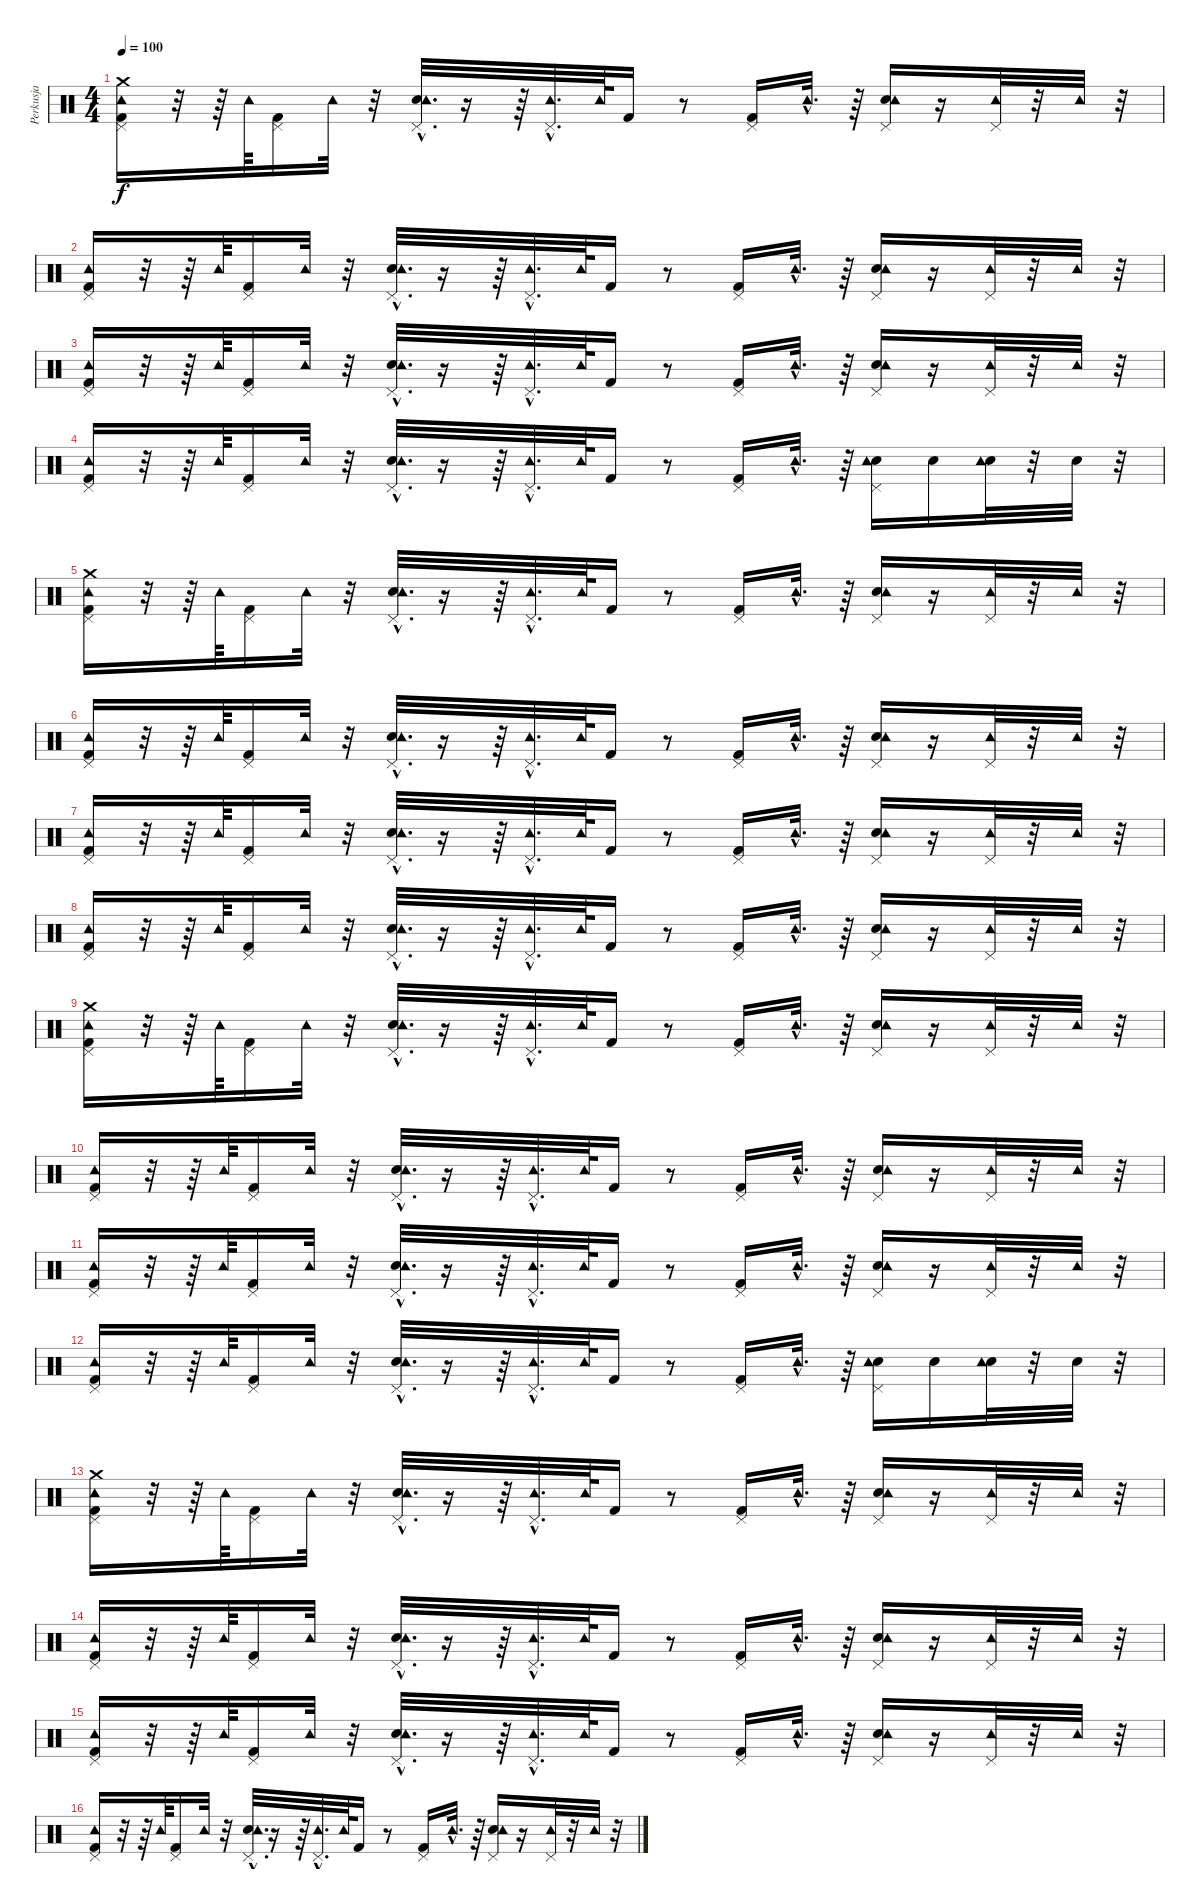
\track ("Perkusja" "Perkusja") {instrument percussion}
\staff {score}
\articulation defaults
\ts (4 4)
\tempo 100
\clef neutral
\ks c
("Tambourine (hit)" "Pedal Hi-Hat (hit)" "Kick (hit) 2" "Crash medium (hit)").16{dy f} r.32 r.64 "Tambourine (hit)".64 ("Kick (hit) 2" "Pedal Hi-Hat (hit)").16 "Tambourine (hit)".32 r.32 ("Electric Snare (hit)"{hac} "Pedal Hi-Hat (hit)"{hac} "Tambourine (hit)"{hac}).32{d} r.16 r.64 ("Pedal Hi-Hat (hit)"{hac} "Tambourine (hit)"{hac}).32{d} "Tambourine (hit)".64 "Kick (hit) 2".16 r.8 ("Kick (hit) 2" "Pedal Hi-Hat (hit)").16 "Tambourine (hit)"{hac}.32{d} r.64 ("Electric Snare (hit)" "Pedal Hi-Hat (hit)" "Tambourine (hit)").16 r.16 ("Pedal Hi-Hat (hit)" "Tambourine (hit)").32 r.32 "Tambourine (hit)".32 r.32 |
("Tambourine (hit)" "Pedal Hi-Hat (hit)" "Kick (hit) 2").16 r.32 r.64 "Tambourine (hit)".64 ("Kick (hit) 2" "Pedal Hi-Hat (hit)").16 "Tambourine (hit)".32 r.32 ("Electric Snare (hit)"{hac} "Pedal Hi-Hat (hit)"{hac} "Tambourine (hit)"{hac}).32{d} r.16 r.64 ("Pedal Hi-Hat (hit)"{hac} "Tambourine (hit)"{hac}).32{d} "Tambourine (hit)".64 "Kick (hit) 2".16 r.8 ("Kick (hit) 2" "Pedal Hi-Hat (hit)").16 "Tambourine (hit)"{hac}.32{d} r.64 ("Electric Snare (hit)" "Pedal Hi-Hat (hit)" "Tambourine (hit)").16 r.16 ("Pedal Hi-Hat (hit)" "Tambourine (hit)").32 r.32 "Tambourine (hit)".32 r.32 |
("Tambourine (hit)" "Pedal Hi-Hat (hit)" "Kick (hit) 2").16 r.32 r.64 "Tambourine (hit)".64 ("Kick (hit) 2" "Pedal Hi-Hat (hit)").16 "Tambourine (hit)".32 r.32 ("Electric Snare (hit)"{hac} "Pedal Hi-Hat (hit)"{hac} "Tambourine (hit)"{hac}).32{d} r.16 r.64 ("Pedal Hi-Hat (hit)"{hac} "Tambourine (hit)"{hac}).32{d} "Tambourine (hit)".64 "Kick (hit) 2".16 r.8 ("Kick (hit) 2" "Pedal Hi-Hat (hit)").16 "Tambourine (hit)"{hac}.32{d} r.64 ("Electric Snare (hit)" "Pedal Hi-Hat (hit)" "Tambourine (hit)").16 r.16 ("Pedal Hi-Hat (hit)" "Tambourine (hit)").32 r.32 "Tambourine (hit)".32 r.32 |
("Tambourine (hit)" "Pedal Hi-Hat (hit)" "Kick (hit) 2").16 r.32 r.64 "Tambourine (hit)".64 ("Kick (hit) 2" "Pedal Hi-Hat (hit)").16 "Tambourine (hit)".32 r.32 ("Electric Snare (hit)"{hac} "Pedal Hi-Hat (hit)"{hac} "Tambourine (hit)"{hac}).32{d} r.16 r.64 ("Pedal Hi-Hat (hit)"{hac} "Tambourine (hit)"{hac}).32{d} "Tambourine (hit)".64 "Kick (hit) 2".16 r.8 ("Kick (hit) 2" "Pedal Hi-Hat (hit)").16 "Tambourine (hit)"{hac}.32{d} r.64 ("Electric Snare (hit)" "Pedal Hi-Hat (hit)" "Tambourine (hit)").16 "Electric Snare (hit)".16 ("Electric Snare (hit)" "Tambourine (hit)").32 r.32 "Electric Snare (hit)".32 r.32 |
("Tambourine (hit)" "Pedal Hi-Hat (hit)" "Kick (hit) 2" "Crash medium (hit)").16 r.32 r.64 "Tambourine (hit)".64 ("Kick (hit) 2" "Pedal Hi-Hat (hit)").16 "Tambourine (hit)".32 r.32 ("Electric Snare (hit)"{hac} "Pedal Hi-Hat (hit)"{hac} "Tambourine (hit)"{hac}).32{d} r.16 r.64 ("Pedal Hi-Hat (hit)"{hac} "Tambourine (hit)"{hac}).32{d} "Tambourine (hit)".64 "Kick (hit) 2".16 r.8 ("Kick (hit) 2" "Pedal Hi-Hat (hit)").16 "Tambourine (hit)"{hac}.32{d} r.64 ("Electric Snare (hit)" "Pedal Hi-Hat (hit)" "Tambourine (hit)").16 r.16 ("Pedal Hi-Hat (hit)" "Tambourine (hit)").32 r.32 "Tambourine (hit)".32 r.32 |
("Tambourine (hit)" "Pedal Hi-Hat (hit)" "Kick (hit) 2").16 r.32 r.64 "Tambourine (hit)".64 ("Kick (hit) 2" "Pedal Hi-Hat (hit)").16 "Tambourine (hit)".32 r.32 ("Electric Snare (hit)"{hac} "Pedal Hi-Hat (hit)"{hac} "Tambourine (hit)"{hac}).32{d} r.16 r.64 ("Pedal Hi-Hat (hit)"{hac} "Tambourine (hit)"{hac}).32{d} "Tambourine (hit)".64 "Kick (hit) 2".16 r.8 ("Kick (hit) 2" "Pedal Hi-Hat (hit)").16 "Tambourine (hit)"{hac}.32{d} r.64 ("Electric Snare (hit)" "Pedal Hi-Hat (hit)" "Tambourine (hit)").16 r.16 ("Pedal Hi-Hat (hit)" "Tambourine (hit)").32 r.32 "Tambourine (hit)".32 r.32 |
("Tambourine (hit)" "Pedal Hi-Hat (hit)" "Kick (hit) 2").16 r.32 r.64 "Tambourine (hit)".64 ("Kick (hit) 2" "Pedal Hi-Hat (hit)").16 "Tambourine (hit)".32 r.32 ("Electric Snare (hit)"{hac} "Pedal Hi-Hat (hit)"{hac} "Tambourine (hit)"{hac}).32{d} r.16 r.64 ("Pedal Hi-Hat (hit)"{hac} "Tambourine (hit)"{hac}).32{d} "Tambourine (hit)".64 "Kick (hit) 2".16 r.8 ("Kick (hit) 2" "Pedal Hi-Hat (hit)").16 "Tambourine (hit)"{hac}.32{d} r.64 ("Electric Snare (hit)" "Pedal Hi-Hat (hit)" "Tambourine (hit)").16 r.16 ("Pedal Hi-Hat (hit)" "Tambourine (hit)").32 r.32 "Tambourine (hit)".32 r.32 |
("Tambourine (hit)" "Pedal Hi-Hat (hit)" "Kick (hit) 2").16 r.32 r.64 "Tambourine (hit)".64 ("Kick (hit) 2" "Pedal Hi-Hat (hit)").16 "Tambourine (hit)".32 r.32 ("Electric Snare (hit)"{hac} "Pedal Hi-Hat (hit)"{hac} "Tambourine (hit)"{hac}).32{d} r.16 r.64 ("Pedal Hi-Hat (hit)"{hac} "Tambourine (hit)"{hac}).32{d} "Tambourine (hit)".64 "Kick (hit) 2".16 r.8 ("Kick (hit) 2" "Pedal Hi-Hat (hit)").16 "Tambourine (hit)"{hac}.32{d} r.64 ("Electric Snare (hit)" "Pedal Hi-Hat (hit)" "Tambourine (hit)").16 r.16 ("Pedal Hi-Hat (hit)" "Tambourine (hit)").32 r.32 "Tambourine (hit)".32 r.32 |
("Tambourine (hit)" "Pedal Hi-Hat (hit)" "Kick (hit) 2" "Crash medium (hit)").16 r.32 r.64 "Tambourine (hit)".64 ("Kick (hit) 2" "Pedal Hi-Hat (hit)").16 "Tambourine (hit)".32 r.32 ("Electric Snare (hit)"{hac} "Pedal Hi-Hat (hit)"{hac} "Tambourine (hit)"{hac}).32{d} r.16 r.64 ("Pedal Hi-Hat (hit)"{hac} "Tambourine (hit)"{hac}).32{d} "Tambourine (hit)".64 "Kick (hit) 2".16 r.8 ("Kick (hit) 2" "Pedal Hi-Hat (hit)").16 "Tambourine (hit)"{hac}.32{d} r.64 ("Electric Snare (hit)" "Pedal Hi-Hat (hit)" "Tambourine (hit)").16 r.16 ("Pedal Hi-Hat (hit)" "Tambourine (hit)").32 r.32 "Tambourine (hit)".32 r.32 |
("Tambourine (hit)" "Pedal Hi-Hat (hit)" "Kick (hit) 2").16 r.32 r.64 "Tambourine (hit)".64 ("Kick (hit) 2" "Pedal Hi-Hat (hit)").16 "Tambourine (hit)".32 r.32 ("Electric Snare (hit)"{hac} "Pedal Hi-Hat (hit)"{hac} "Tambourine (hit)"{hac}).32{d} r.16 r.64 ("Pedal Hi-Hat (hit)"{hac} "Tambourine (hit)"{hac}).32{d} "Tambourine (hit)".64 "Kick (hit) 2".16 r.8 ("Kick (hit) 2" "Pedal Hi-Hat (hit)").16 "Tambourine (hit)"{hac}.32{d} r.64 ("Electric Snare (hit)" "Pedal Hi-Hat (hit)" "Tambourine (hit)").16 r.16 ("Pedal Hi-Hat (hit)" "Tambourine (hit)").32 r.32 "Tambourine (hit)".32 r.32 |
("Tambourine (hit)" "Pedal Hi-Hat (hit)" "Kick (hit) 2").16 r.32 r.64 "Tambourine (hit)".64 ("Kick (hit) 2" "Pedal Hi-Hat (hit)").16 "Tambourine (hit)".32 r.32 ("Electric Snare (hit)"{hac} "Pedal Hi-Hat (hit)"{hac} "Tambourine (hit)"{hac}).32{d} r.16 r.64 ("Pedal Hi-Hat (hit)"{hac} "Tambourine (hit)"{hac}).32{d} "Tambourine (hit)".64 "Kick (hit) 2".16 r.8 ("Kick (hit) 2" "Pedal Hi-Hat (hit)").16 "Tambourine (hit)"{hac}.32{d} r.64 ("Electric Snare (hit)" "Pedal Hi-Hat (hit)" "Tambourine (hit)").16 r.16 ("Pedal Hi-Hat (hit)" "Tambourine (hit)").32 r.32 "Tambourine (hit)".32 r.32 |
("Tambourine (hit)" "Pedal Hi-Hat (hit)" "Kick (hit) 2").16 r.32 r.64 "Tambourine (hit)".64 ("Kick (hit) 2" "Pedal Hi-Hat (hit)").16 "Tambourine (hit)".32 r.32 ("Electric Snare (hit)"{hac} "Pedal Hi-Hat (hit)"{hac} "Tambourine (hit)"{hac}).32{d} r.16 r.64 ("Pedal Hi-Hat (hit)"{hac} "Tambourine (hit)"{hac}).32{d} "Tambourine (hit)".64 "Kick (hit) 2".16 r.8 ("Kick (hit) 2" "Pedal Hi-Hat (hit)").16 "Tambourine (hit)"{hac}.32{d} r.64 ("Electric Snare (hit)" "Pedal Hi-Hat (hit)" "Tambourine (hit)").16 "Electric Snare (hit)".16 ("Electric Snare (hit)" "Tambourine (hit)").32 r.32 "Electric Snare (hit)".32 r.32 |
("Tambourine (hit)" "Pedal Hi-Hat (hit)" "Kick (hit) 2" "Crash medium (hit)").16 r.32 r.64 "Tambourine (hit)".64 ("Kick (hit) 2" "Pedal Hi-Hat (hit)").16 "Tambourine (hit)".32 r.32 ("Electric Snare (hit)"{hac} "Pedal Hi-Hat (hit)"{hac} "Tambourine (hit)"{hac}).32{d} r.16 r.64 ("Pedal Hi-Hat (hit)"{hac} "Tambourine (hit)"{hac}).32{d} "Tambourine (hit)".64 "Kick (hit) 2".16 r.8 ("Kick (hit) 2" "Pedal Hi-Hat (hit)").16 "Tambourine (hit)"{hac}.32{d} r.64 ("Electric Snare (hit)" "Pedal Hi-Hat (hit)" "Tambourine (hit)").16 r.16 ("Pedal Hi-Hat (hit)" "Tambourine (hit)").32 r.32 "Tambourine (hit)".32 r.32 |
("Tambourine (hit)" "Pedal Hi-Hat (hit)" "Kick (hit) 2").16 r.32 r.64 "Tambourine (hit)".64 ("Kick (hit) 2" "Pedal Hi-Hat (hit)").16 "Tambourine (hit)".32 r.32 ("Electric Snare (hit)"{hac} "Pedal Hi-Hat (hit)"{hac} "Tambourine (hit)"{hac}).32{d} r.16 r.64 ("Pedal Hi-Hat (hit)"{hac} "Tambourine (hit)"{hac}).32{d} "Tambourine (hit)".64 "Kick (hit) 2".16 r.8 ("Kick (hit) 2" "Pedal Hi-Hat (hit)").16 "Tambourine (hit)"{hac}.32{d} r.64 ("Electric Snare (hit)" "Pedal Hi-Hat (hit)" "Tambourine (hit)").16 r.16 ("Pedal Hi-Hat (hit)" "Tambourine (hit)").32 r.32 "Tambourine (hit)".32 r.32 |
("Tambourine (hit)" "Pedal Hi-Hat (hit)" "Kick (hit) 2").16 r.32 r.64 "Tambourine (hit)".64 ("Kick (hit) 2" "Pedal Hi-Hat (hit)").16 "Tambourine (hit)".32 r.32 ("Electric Snare (hit)"{hac} "Pedal Hi-Hat (hit)"{hac} "Tambourine (hit)"{hac}).32{d} r.16 r.64 ("Pedal Hi-Hat (hit)"{hac} "Tambourine (hit)"{hac}).32{d} "Tambourine (hit)".64 "Kick (hit) 2".16 r.8 ("Kick (hit) 2" "Pedal Hi-Hat (hit)").16 "Tambourine (hit)"{hac}.32{d} r.64 ("Electric Snare (hit)" "Pedal Hi-Hat (hit)" "Tambourine (hit)").16 r.16 ("Pedal Hi-Hat (hit)" "Tambourine (hit)").32 r.32 "Tambourine (hit)".32 r.32 |
("Tambourine (hit)" "Pedal Hi-Hat (hit)" "Kick (hit) 2").16 r.32 r.64 "Tambourine (hit)".64 ("Kick (hit) 2" "Pedal Hi-Hat (hit)").16 "Tambourine (hit)".32 r.32 ("Electric Snare (hit)"{hac} "Pedal Hi-Hat (hit)"{hac} "Tambourine (hit)"{hac}).32{d} r.16 r.64 ("Pedal Hi-Hat (hit)"{hac} "Tambourine (hit)"{hac}).32{d} "Tambourine (hit)".64 "Kick (hit) 2".16 r.8 ("Kick (hit) 2" "Pedal Hi-Hat (hit)").16 "Tambourine (hit)"{hac}.32{d} r.64 ("Electric Snare (hit)" "Pedal Hi-Hat (hit)" "Tambourine (hit)").16 r.16 ("Pedal Hi-Hat (hit)" "Tambourine (hit)").32 r.32 "Tambourine (hit)".32 r.32
